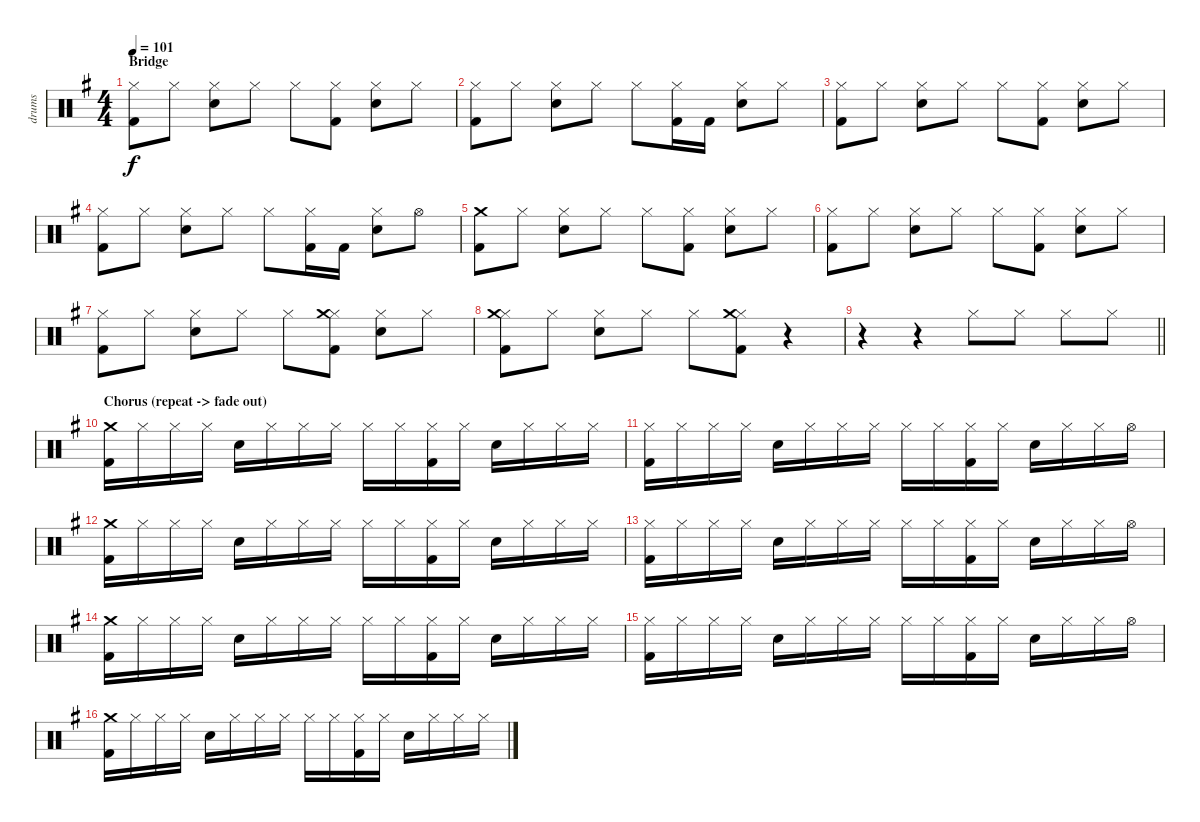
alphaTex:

\track ("drums" "drums") {instrument percussion}
\staff {score}
\articulation defaults
\ts (4 4)
\section ("" "Bridge")
\tempo 101
\clef neutral
\ks eminor
("Hi-Hat (closed)" "Kick (hit) 2").8{dy f} "Hi-Hat (closed)".8 ("Hi-Hat (closed)" "Snare (hit) 2").8 "Hi-Hat (closed)".8 "Hi-Hat (closed)".8 ("Hi-Hat (closed)" "Kick (hit) 2").8 ("Hi-Hat (closed)" "Snare (hit) 2").8 "Hi-Hat (closed)".8 |
("Hi-Hat (closed)" "Kick (hit) 2").8 "Hi-Hat (closed)".8 ("Hi-Hat (closed)" "Snare (hit) 2").8 "Hi-Hat (closed)".8 "Hi-Hat (closed)".8 ("Hi-Hat (closed)" "Kick (hit) 2").16 "Kick (hit) 2".16 ("Hi-Hat (closed)" "Snare (hit) 2").8 "Hi-Hat (closed)".8 |
("Hi-Hat (closed)" "Kick (hit) 2").8 "Hi-Hat (closed)".8 ("Hi-Hat (closed)" "Snare (hit) 2").8 "Hi-Hat (closed)".8 "Hi-Hat (closed)".8 ("Hi-Hat (closed)" "Kick (hit) 2").8 ("Hi-Hat (closed)" "Snare (hit) 2").8 "Hi-Hat (closed)".8 |
("Hi-Hat (closed)" "Kick (hit) 2").8 "Hi-Hat (closed)".8 ("Hi-Hat (closed)" "Snare (hit) 2").8 "Hi-Hat (closed)".8 "Hi-Hat (closed)".8 ("Hi-Hat (closed)" "Kick (hit) 2").16 "Kick (hit) 2".16 ("Hi-Hat (closed)" "Snare (hit) 2").8 "Hi-Hat (open)".8 |
("Crash medium (hit)" "Kick (hit) 2").8 "Hi-Hat (closed)".8 ("Hi-Hat (closed)" "Snare (hit) 2").8 "Hi-Hat (closed)".8 "Hi-Hat (closed)".8 ("Hi-Hat (closed)" "Kick (hit) 2").8 ("Hi-Hat (closed)" "Snare (hit) 2").8 "Hi-Hat (closed)".8 |
("Hi-Hat (closed)" "Kick (hit) 2").8 "Hi-Hat (closed)".8 ("Hi-Hat (closed)" "Snare (hit) 2").8 "Hi-Hat (closed)".8 "Hi-Hat (closed)".8 ("Hi-Hat (closed)" "Kick (hit) 2").8 ("Hi-Hat (closed)" "Snare (hit) 2").8 "Hi-Hat (closed)".8 |
("Hi-Hat (closed)" "Kick (hit) 2").8 "Hi-Hat (closed)".8 ("Hi-Hat (closed)" "Snare (hit) 2").8 "Hi-Hat (closed)".8 "Hi-Hat (closed)".8 ("Hi-Hat (closed)" "Crash medium (hit)" "Kick (hit) 2").8 ("Hi-Hat (closed)" "Snare (hit) 2").8 "Hi-Hat (closed)".8 |
("Hi-Hat (closed)" "Crash medium (hit)" "Kick (hit) 2").8 "Hi-Hat (closed)".8 ("Hi-Hat (closed)" "Snare (hit) 2").8 "Hi-Hat (closed)".8 "Hi-Hat (closed)".8 ("Hi-Hat (closed)" "Crash medium (hit)" "Kick (hit) 2").8 r.4 |
\barLineRight lightlight
r.4 r.4 "Hi-Hat (closed)".8 "Hi-Hat (closed)".8 "Hi-Hat (closed)".8 "Hi-Hat (closed)".8 |
\section ("" "Chorus (repeat -> fade out)")
("Crash medium (hit)" "Kick (hit) 2").16 "Hi-Hat (closed)".16 "Hi-Hat (closed)".16 "Hi-Hat (closed)".16 "Snare (hit) 2".16 "Hi-Hat (closed)".16 "Hi-Hat (closed)".16 "Hi-Hat (closed)".16 "Hi-Hat (closed)".16 "Hi-Hat (closed)".16 ("Hi-Hat (closed)" "Kick (hit) 2").16 "Hi-Hat (closed)".16 "Snare (hit) 2".16 "Hi-Hat (closed)".16 "Hi-Hat (closed)".16 "Hi-Hat (closed)".16 |
("Hi-Hat (closed)" "Kick (hit) 2").16 "Hi-Hat (closed)".16 "Hi-Hat (closed)".16 "Hi-Hat (closed)".16 "Snare (hit) 2".16 "Hi-Hat (closed)".16 "Hi-Hat (closed)".16 "Hi-Hat (closed)".16 "Hi-Hat (closed)".16 "Hi-Hat (closed)".16 ("Hi-Hat (closed)" "Kick (hit) 2").16 "Hi-Hat (closed)".16 "Snare (hit) 2".16 "Hi-Hat (closed)".16 "Hi-Hat (closed)".16 "Hi-Hat (open)".16 |
("Crash medium (hit)" "Kick (hit) 2").16 "Hi-Hat (closed)".16 "Hi-Hat (closed)".16 "Hi-Hat (closed)".16 "Snare (hit) 2".16 "Hi-Hat (closed)".16 "Hi-Hat (closed)".16 "Hi-Hat (closed)".16 "Hi-Hat (closed)".16 "Hi-Hat (closed)".16 ("Hi-Hat (closed)" "Kick (hit) 2").16 "Hi-Hat (closed)".16 "Snare (hit) 2".16 "Hi-Hat (closed)".16 "Hi-Hat (closed)".16 "Hi-Hat (closed)".16 |
("Hi-Hat (closed)" "Kick (hit) 2").16 "Hi-Hat (closed)".16 "Hi-Hat (closed)".16 "Hi-Hat (closed)".16 "Snare (hit) 2".16 "Hi-Hat (closed)".16 "Hi-Hat (closed)".16 "Hi-Hat (closed)".16 "Hi-Hat (closed)".16 "Hi-Hat (closed)".16 ("Hi-Hat (closed)" "Kick (hit) 2").16 "Hi-Hat (closed)".16 "Snare (hit) 2".16 "Hi-Hat (closed)".16 "Hi-Hat (closed)".16 "Hi-Hat (open)".16 |
("Crash medium (hit)" "Kick (hit) 2").16 "Hi-Hat (closed)".16 "Hi-Hat (closed)".16 "Hi-Hat (closed)".16 "Snare (hit) 2".16 "Hi-Hat (closed)".16 "Hi-Hat (closed)".16 "Hi-Hat (closed)".16 "Hi-Hat (closed)".16 "Hi-Hat (closed)".16 ("Hi-Hat (closed)" "Kick (hit) 2").16 "Hi-Hat (closed)".16 "Snare (hit) 2".16 "Hi-Hat (closed)".16 "Hi-Hat (closed)".16 "Hi-Hat (closed)".16 |
("Hi-Hat (closed)" "Kick (hit) 2").16 "Hi-Hat (closed)".16 "Hi-Hat (closed)".16 "Hi-Hat (closed)".16 "Snare (hit) 2".16 "Hi-Hat (closed)".16 "Hi-Hat (closed)".16 "Hi-Hat (closed)".16 "Hi-Hat (closed)".16 "Hi-Hat (closed)".16 ("Hi-Hat (closed)" "Kick (hit) 2").16 "Hi-Hat (closed)".16 "Snare (hit) 2".16 "Hi-Hat (closed)".16 "Hi-Hat (closed)".16 "Hi-Hat (open)".16 |
("Crash medium (hit)" "Kick (hit) 2").16 "Hi-Hat (closed)".16 "Hi-Hat (closed)".16 "Hi-Hat (closed)".16 "Snare (hit) 2".16 "Hi-Hat (closed)".16 "Hi-Hat (closed)".16 "Hi-Hat (closed)".16 "Hi-Hat (closed)".16 "Hi-Hat (closed)".16 ("Hi-Hat (closed)" "Kick (hit) 2").16 "Hi-Hat (closed)".16 "Snare (hit) 2".16 "Hi-Hat (closed)".16 "Hi-Hat (closed)".16 "Hi-Hat (closed)".16
